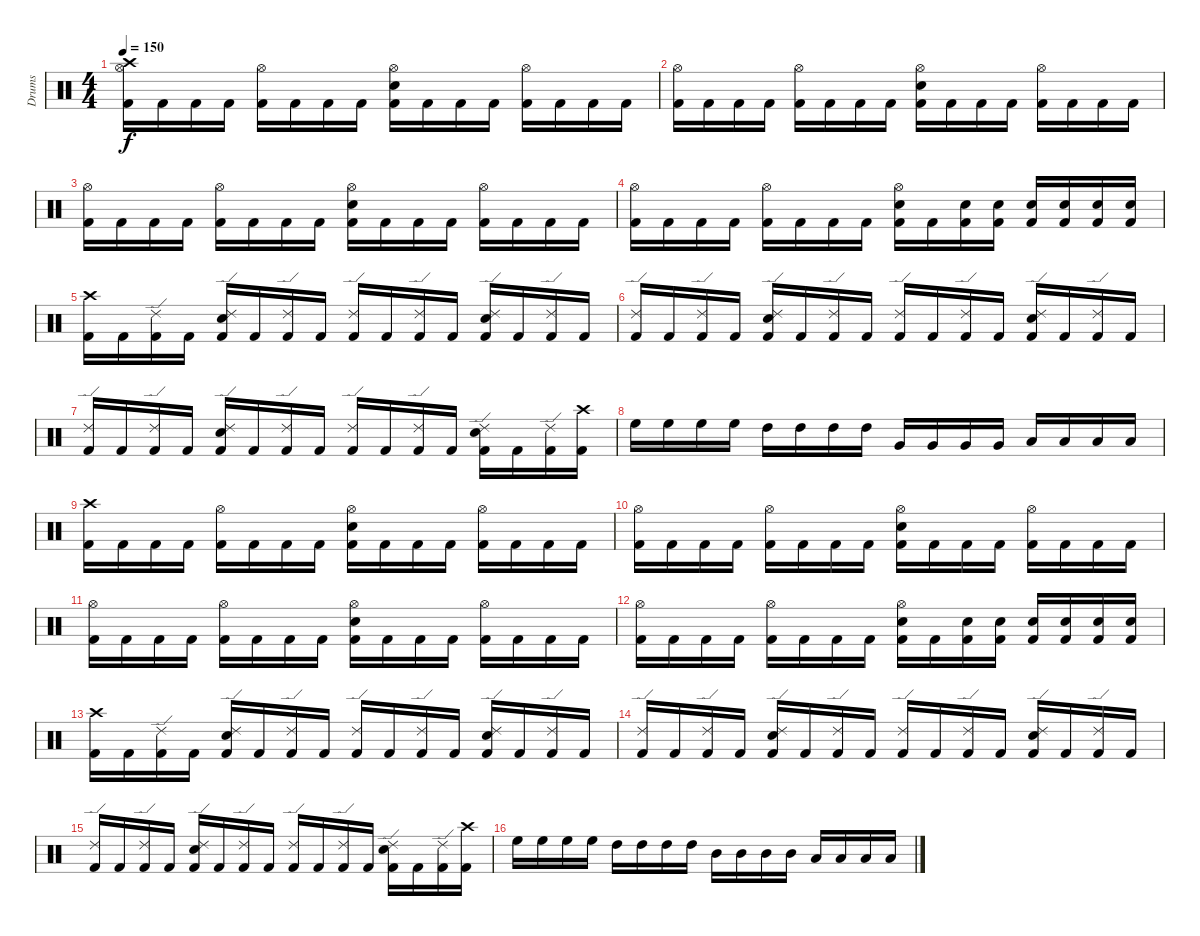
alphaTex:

\track ("Drums" "Drums") {instrument percussion}
\staff {score}
\articulation defaults
\ts (4 4)
\tempo 150
\clef neutral
\ks c
("Crash high (hit)" "Hi-Hat (open)" "Kick (hit) 2").16{dy f} "Kick (hit) 2".16 "Kick (hit) 2".16 "Kick (hit) 2".16 ("Hi-Hat (open)" "Kick (hit) 2").16 "Kick (hit) 2".16 "Kick (hit) 2".16 "Kick (hit) 2".16 ("Snare (hit) 2" "Hi-Hat (open)" "Kick (hit) 2").16 "Kick (hit) 2".16 "Kick (hit) 2".16 "Kick (hit) 2".16 ("Hi-Hat (open)" "Kick (hit) 2").16 "Kick (hit) 2".16 "Kick (hit) 2".16 "Kick (hit) 2".16 |
("Hi-Hat (open)" "Kick (hit) 2").16 "Kick (hit) 2".16 "Kick (hit) 2".16 "Kick (hit) 2".16 ("Hi-Hat (open)" "Kick (hit) 2").16 "Kick (hit) 2".16 "Kick (hit) 2".16 "Kick (hit) 2".16 ("Snare (hit) 2" "Hi-Hat (open)" "Kick (hit) 2").16 "Kick (hit) 2".16 "Kick (hit) 2".16 "Kick (hit) 2".16 ("Hi-Hat (open)" "Kick (hit) 2").16 "Kick (hit) 2".16 "Kick (hit) 2".16 "Kick (hit) 2".16 |
("Hi-Hat (open)" "Kick (hit) 2").16 "Kick (hit) 2".16 "Kick (hit) 2".16 "Kick (hit) 2".16 ("Hi-Hat (open)" "Kick (hit) 2").16 "Kick (hit) 2".16 "Kick (hit) 2".16 "Kick (hit) 2".16 ("Snare (hit) 2" "Hi-Hat (open)" "Kick (hit) 2").16 "Kick (hit) 2".16 "Kick (hit) 2".16 "Kick (hit) 2".16 ("Hi-Hat (open)" "Kick (hit) 2").16 "Kick (hit) 2".16 "Kick (hit) 2".16 "Kick (hit) 2".16 |
("Hi-Hat (open)" "Kick (hit) 2").16 "Kick (hit) 2".16 "Kick (hit) 2".16 "Kick (hit) 2".16 ("Hi-Hat (open)" "Kick (hit) 2").16 "Kick (hit) 2".16 "Kick (hit) 2".16 "Kick (hit) 2".16 ("Snare (hit) 2" "Hi-Hat (open)" "Kick (hit) 2").16 "Kick (hit) 2".16 ("Snare (hit) 2" "Kick (hit) 2").16 ("Snare (hit) 2" "Kick (hit) 2").16 ("Snare (hit) 2" "Kick (hit) 2").16 ("Snare (hit) 2" "Kick (hit) 2").16 ("Snare (hit) 2" "Kick (hit) 2").16 ("Snare (hit) 2" "Kick (hit) 2").16 |
("Crash high (hit)" "Kick (hit) 2").16 "Kick (hit) 2".16 ("Ride (edge) 2" "Kick (hit) 2").16 "Kick (hit) 2".16 ("Snare (hit) 2" "Ride (edge) 2" "Kick (hit) 2").16 "Kick (hit) 2".16 ("Ride (edge) 2" "Kick (hit) 2").16 "Kick (hit) 2".16 ("Ride (edge) 2" "Kick (hit) 2").16 "Kick (hit) 2".16 ("Ride (edge) 2" "Kick (hit) 2").16 "Kick (hit) 2".16 ("Snare (hit) 2" "Ride (edge) 2" "Kick (hit) 2").16 "Kick (hit) 2".16 ("Ride (edge) 2" "Kick (hit) 2").16 "Kick (hit) 2".16 |
("Ride (edge) 2" "Kick (hit) 2").16 "Kick (hit) 2".16 ("Ride (edge) 2" "Kick (hit) 2").16 "Kick (hit) 2".16 ("Snare (hit) 2" "Ride (edge) 2" "Kick (hit) 2").16 "Kick (hit) 2".16 ("Ride (edge) 2" "Kick (hit) 2").16 "Kick (hit) 2".16 ("Ride (edge) 2" "Kick (hit) 2").16 "Kick (hit) 2".16 ("Ride (edge) 2" "Kick (hit) 2").16 "Kick (hit) 2".16 ("Snare (hit) 2" "Ride (edge) 2" "Kick (hit) 2").16 "Kick (hit) 2".16 ("Ride (edge) 2" "Kick (hit) 2").16 "Kick (hit) 2".16 |
("Ride (edge) 2" "Kick (hit) 2").16 "Kick (hit) 2".16 ("Ride (edge) 2" "Kick (hit) 2").16 "Kick (hit) 2".16 ("Snare (hit) 2" "Ride (edge) 2" "Kick (hit) 2").16 "Kick (hit) 2".16 ("Ride (edge) 2" "Kick (hit) 2").16 "Kick (hit) 2".16 ("Ride (edge) 2" "Kick (hit) 2").16 "Kick (hit) 2".16 ("Ride (edge) 2" "Kick (hit) 2").16 "Kick (hit) 2".16 ("Snare (hit) 2" "Ride (edge) 2" "Kick (hit) 2").16 "Kick (hit) 2".16 ("Ride (edge) 2" "Kick (hit) 2").16 ("Crash high (hit)" "Kick (hit) 2").16 |
"High Floor Tom (hit)".16 "High Floor Tom (hit)".16 "High Floor Tom (hit)".16 "High Floor Tom (hit)".16 "High Tom (hit)".16 "High Tom (hit)".16 "High Tom (hit)".16 "High Tom (hit)".16 "Very Low Tom (hit)".16 "Very Low Tom (hit)".16 "Very Low Tom (hit)".16 "Very Low Tom (hit)".16 "Low Tom (hit)".16 "Low Tom (hit)".16 "Low Tom (hit)".16 "Low Tom (hit)".16 |
("Crash high (hit)" "Kick (hit) 2").16 "Kick (hit) 2".16 "Kick (hit) 2".16 "Kick (hit) 2".16 ("Hi-Hat (open)" "Kick (hit) 2").16 "Kick (hit) 2".16 "Kick (hit) 2".16 "Kick (hit) 2".16 ("Snare (hit) 2" "Hi-Hat (open)" "Kick (hit) 2").16 "Kick (hit) 2".16 "Kick (hit) 2".16 "Kick (hit) 2".16 ("Hi-Hat (open)" "Kick (hit) 2").16 "Kick (hit) 2".16 "Kick (hit) 2".16 "Kick (hit) 2".16 |
("Hi-Hat (open)" "Kick (hit) 2").16 "Kick (hit) 2".16 "Kick (hit) 2".16 "Kick (hit) 2".16 ("Hi-Hat (open)" "Kick (hit) 2").16 "Kick (hit) 2".16 "Kick (hit) 2".16 "Kick (hit) 2".16 ("Snare (hit) 2" "Hi-Hat (open)" "Kick (hit) 2").16 "Kick (hit) 2".16 "Kick (hit) 2".16 "Kick (hit) 2".16 ("Hi-Hat (open)" "Kick (hit) 2").16 "Kick (hit) 2".16 "Kick (hit) 2".16 "Kick (hit) 2".16 |
("Hi-Hat (open)" "Kick (hit) 2").16 "Kick (hit) 2".16 "Kick (hit) 2".16 "Kick (hit) 2".16 ("Hi-Hat (open)" "Kick (hit) 2").16 "Kick (hit) 2".16 "Kick (hit) 2".16 "Kick (hit) 2".16 ("Snare (hit) 2" "Hi-Hat (open)" "Kick (hit) 2").16 "Kick (hit) 2".16 "Kick (hit) 2".16 "Kick (hit) 2".16 ("Hi-Hat (open)" "Kick (hit) 2").16 "Kick (hit) 2".16 "Kick (hit) 2".16 "Kick (hit) 2".16 |
("Hi-Hat (open)" "Kick (hit) 2").16 "Kick (hit) 2".16 "Kick (hit) 2".16 "Kick (hit) 2".16 ("Hi-Hat (open)" "Kick (hit) 2").16 "Kick (hit) 2".16 "Kick (hit) 2".16 "Kick (hit) 2".16 ("Snare (hit) 2" "Hi-Hat (open)" "Kick (hit) 2").16 "Kick (hit) 2".16 ("Snare (hit) 2" "Kick (hit) 2").16 ("Snare (hit) 2" "Kick (hit) 2").16 ("Snare (hit) 2" "Kick (hit) 2").16 ("Snare (hit) 2" "Kick (hit) 2").16 ("Snare (hit) 2" "Kick (hit) 2").16 ("Snare (hit) 2" "Kick (hit) 2").16 |
("Crash high (hit)" "Kick (hit) 2").16 "Kick (hit) 2".16 ("Ride (edge) 2" "Kick (hit) 2").16 "Kick (hit) 2".16 ("Snare (hit) 2" "Ride (edge) 2" "Kick (hit) 2").16 "Kick (hit) 2".16 ("Ride (edge) 2" "Kick (hit) 2").16 "Kick (hit) 2".16 ("Ride (edge) 2" "Kick (hit) 2").16 "Kick (hit) 2".16 ("Ride (edge) 2" "Kick (hit) 2").16 "Kick (hit) 2".16 ("Snare (hit) 2" "Ride (edge) 2" "Kick (hit) 2").16 "Kick (hit) 2".16 ("Ride (edge) 2" "Kick (hit) 2").16 "Kick (hit) 2".16 |
("Ride (edge) 2" "Kick (hit) 2").16 "Kick (hit) 2".16 ("Ride (edge) 2" "Kick (hit) 2").16 "Kick (hit) 2".16 ("Snare (hit) 2" "Ride (edge) 2" "Kick (hit) 2").16 "Kick (hit) 2".16 ("Ride (edge) 2" "Kick (hit) 2").16 "Kick (hit) 2".16 ("Ride (edge) 2" "Kick (hit) 2").16 "Kick (hit) 2".16 ("Ride (edge) 2" "Kick (hit) 2").16 "Kick (hit) 2".16 ("Snare (hit) 2" "Ride (edge) 2" "Kick (hit) 2").16 "Kick (hit) 2".16 ("Ride (edge) 2" "Kick (hit) 2").16 "Kick (hit) 2".16 |
("Ride (edge) 2" "Kick (hit) 2").16 "Kick (hit) 2".16 ("Ride (edge) 2" "Kick (hit) 2").16 "Kick (hit) 2".16 ("Snare (hit) 2" "Ride (edge) 2" "Kick (hit) 2").16 "Kick (hit) 2".16 ("Ride (edge) 2" "Kick (hit) 2").16 "Kick (hit) 2".16 ("Ride (edge) 2" "Kick (hit) 2").16 "Kick (hit) 2".16 ("Ride (edge) 2" "Kick (hit) 2").16 "Kick (hit) 2".16 ("Snare (hit) 2" "Ride (edge) 2" "Kick (hit) 2").16 "Kick (hit) 2".16 ("Ride (edge) 2" "Kick (hit) 2").16 ("Crash high (hit)" "Kick (hit) 2").16 |
"High Floor Tom (hit)".16 "High Floor Tom (hit)".16 "High Floor Tom (hit)".16 "High Floor Tom (hit)".16 "High Tom (hit)".16 "High Tom (hit)".16 "High Tom (hit)".16 "High Tom (hit)".16 "Mid Tom (hit)".16 "Mid Tom (hit)".16 "Mid Tom (hit)".16 "Mid Tom (hit)".16 "Low Tom (hit)".16 "Low Tom (hit)".16 "Low Tom (hit)".16 "Low Tom (hit)".16
